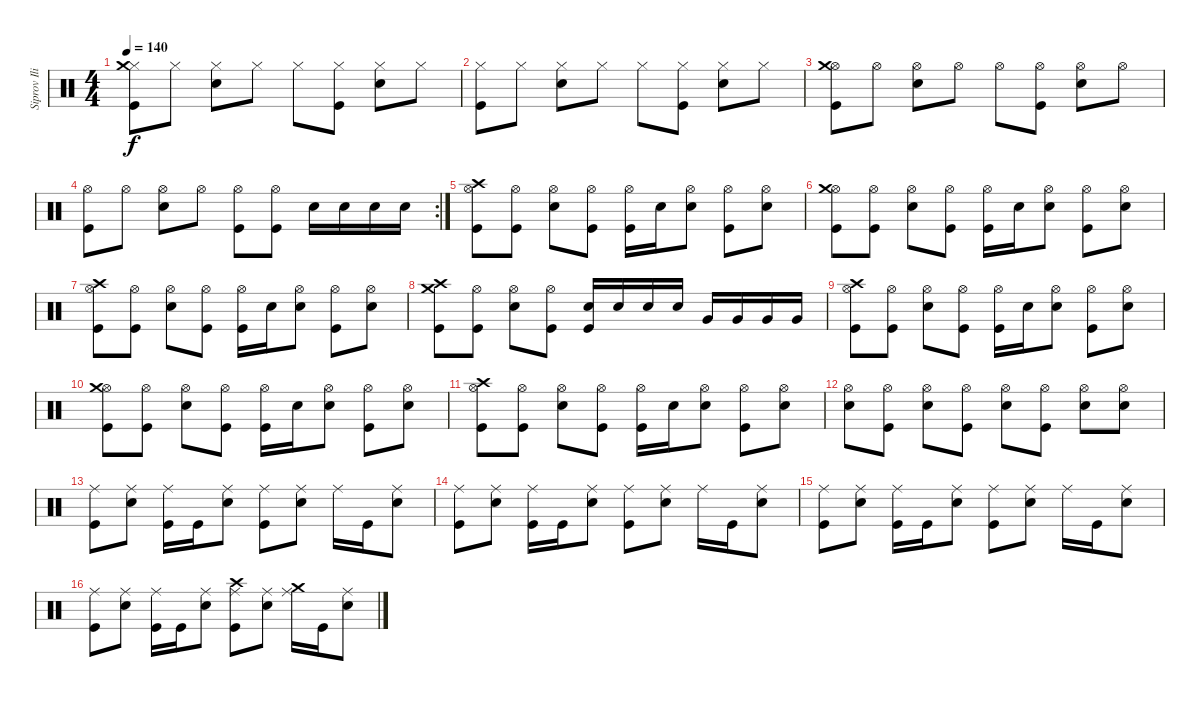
\track ("Siprov Iliya (DRUMS)" "Siprov Ili") {instrument percussion}
\staff {score}
\articulation defaults
\ts (4 4)
\tempo 140
\clef neutral
\ks c
("Hi-Hat (closed)" "Crash medium (hit)" "Kick (hit)").8{dy f} "Hi-Hat (closed)".8 ("Hi-Hat (closed)" "Electric Snare (hit)").8 "Hi-Hat (closed)".8 "Hi-Hat (closed)".8 ("Hi-Hat (closed)" "Kick (hit)").8 ("Hi-Hat (closed)" "Electric Snare (hit)").8 "Hi-Hat (closed)".8 |
("Hi-Hat (closed)" "Kick (hit)").8 "Hi-Hat (closed)".8 ("Hi-Hat (closed)" "Electric Snare (hit)").8 "Hi-Hat (closed)".8 "Hi-Hat (closed)".8 ("Hi-Hat (closed)" "Kick (hit)").8 ("Hi-Hat (closed)" "Electric Snare (hit)").8 "Hi-Hat (closed)".8 |
("Hi-Hat (open)" "Crash medium (hit)" "Kick (hit)").8 "Hi-Hat (open)".8 ("Hi-Hat (open)" "Electric Snare (hit)").8 "Hi-Hat (open)".8 "Hi-Hat (open)".8 ("Hi-Hat (open)" "Kick (hit)").8 ("Hi-Hat (open)" "Electric Snare (hit)").8 "Hi-Hat (open)".8 |
\rc 2
("Hi-Hat (open)" "Kick (hit)").8 "Hi-Hat (open)".8 ("Hi-Hat (open)" "Electric Snare (hit)").8 "Hi-Hat (open)".8 ("Hi-Hat (open)" "Kick (hit)").8 ("Hi-Hat (open)" "Kick (hit)").8 "Electric Snare (hit)".16 "Electric Snare (hit)".16 "Electric Snare (hit)".16 "Electric Snare (hit)".16 |
("Hi-Hat (open)" "Crash high (hit)" "Kick (hit)").8 ("Hi-Hat (open)" "Kick (hit)").8 ("Hi-Hat (open)" "Electric Snare (hit)").8 ("Hi-Hat (open)" "Kick (hit)").8 ("Hi-Hat (open)" "Kick (hit)").16 "Electric Snare (hit)".16 ("Hi-Hat (open)" "Electric Snare (hit)").8 ("Hi-Hat (open)" "Kick (hit)").8 ("Hi-Hat (open)" "Electric Snare (hit)").8 |
("Hi-Hat (open)" "Crash medium (hit)" "Kick (hit)").8 ("Hi-Hat (open)" "Kick (hit)").8 ("Hi-Hat (open)" "Electric Snare (hit)").8 ("Hi-Hat (open)" "Kick (hit)").8 ("Hi-Hat (open)" "Kick (hit)").16 "Electric Snare (hit)".16 ("Hi-Hat (open)" "Electric Snare (hit)").8 ("Hi-Hat (open)" "Kick (hit)").8 ("Hi-Hat (open)" "Electric Snare (hit)").8 |
("Hi-Hat (open)" "Crash high (hit)" "Kick (hit)").8 ("Hi-Hat (open)" "Kick (hit)").8 ("Hi-Hat (open)" "Electric Snare (hit)").8 ("Hi-Hat (open)" "Kick (hit)").8 ("Hi-Hat (open)" "Kick (hit)").16 "Electric Snare (hit)".16 ("Hi-Hat (open)" "Electric Snare (hit)").8 ("Hi-Hat (open)" "Kick (hit)").8 ("Hi-Hat (open)" "Electric Snare (hit)").8 |
("Crash high (hit)" "Crash medium (hit)" "Kick (hit)").8 ("Hi-Hat (open)" "Kick (hit)").8 ("Hi-Hat (open)" "Electric Snare (hit)").8 ("Hi-Hat (open)" "Kick (hit)").8 ("Electric Snare (hit)" "Kick (hit)").16 "Electric Snare (hit)".16 "Electric Snare (hit)".16 "Electric Snare (hit)".16 "Very Low Tom (hit)".16 "Very Low Tom (hit)".16 "Very Low Tom (hit)".16 "Very Low Tom (hit)".16 |
("Hi-Hat (open)" "Crash high (hit)" "Kick (hit)").8 ("Hi-Hat (open)" "Kick (hit)").8 ("Hi-Hat (open)" "Electric Snare (hit)").8 ("Hi-Hat (open)" "Kick (hit)").8 ("Hi-Hat (open)" "Kick (hit)").16 "Electric Snare (hit)".16 ("Hi-Hat (open)" "Electric Snare (hit)").8 ("Hi-Hat (open)" "Kick (hit)").8 ("Hi-Hat (open)" "Electric Snare (hit)").8 |
("Hi-Hat (open)" "Crash medium (hit)" "Kick (hit)").8 ("Hi-Hat (open)" "Kick (hit)").8 ("Hi-Hat (open)" "Electric Snare (hit)").8 ("Hi-Hat (open)" "Kick (hit)").8 ("Hi-Hat (open)" "Kick (hit)").16 "Electric Snare (hit)".16 ("Hi-Hat (open)" "Electric Snare (hit)").8 ("Hi-Hat (open)" "Kick (hit)").8 ("Hi-Hat (open)" "Electric Snare (hit)").8 |
("Hi-Hat (open)" "Crash high (hit)" "Kick (hit)").8 ("Hi-Hat (open)" "Kick (hit)").8 ("Hi-Hat (open)" "Electric Snare (hit)").8 ("Hi-Hat (open)" "Kick (hit)").8 ("Hi-Hat (open)" "Kick (hit)").16 "Electric Snare (hit)".16 ("Hi-Hat (open)" "Electric Snare (hit)").8 ("Hi-Hat (open)" "Kick (hit)").8 ("Hi-Hat (open)" "Electric Snare (hit)").8 |
("Hi-Hat (open)" "Electric Snare (hit)").8 ("Hi-Hat (open)" "Kick (hit)").8 ("Hi-Hat (open)" "Electric Snare (hit)").8 ("Hi-Hat (open)" "Kick (hit)").8 ("Hi-Hat (open)" "Electric Snare (hit)").8 ("Hi-Hat (open)" "Kick (hit)").8 ("Hi-Hat (open)" "Electric Snare (hit)").8 ("Hi-Hat (open)" "Electric Snare (hit)").8 |
("Ride (middle)" "Kick (hit)").8 ("Ride (middle)" "Electric Snare (hit)").8 ("Ride (middle)" "Kick (hit)").16 "Kick (hit)".16 ("Ride (middle)" "Electric Snare (hit)").8 ("Ride (middle)" "Kick (hit)").8 ("Ride (middle)" "Electric Snare (hit)").8 "Ride (middle)".16 "Kick (hit)".16 ("Ride (middle)" "Electric Snare (hit)").8 |
("Ride (middle)" "Kick (hit)").8 ("Ride (middle)" "Electric Snare (hit)").8 ("Ride (middle)" "Kick (hit)").16 "Kick (hit)".16 ("Ride (middle)" "Electric Snare (hit)").8 ("Ride (middle)" "Kick (hit)").8 ("Ride (middle)" "Electric Snare (hit)").8 "Ride (middle)".16 "Kick (hit)".16 ("Ride (middle)" "Electric Snare (hit)").8 |
("Ride (middle)" "Kick (hit)").8 ("Ride (middle)" "Electric Snare (hit)").8 ("Ride (middle)" "Kick (hit)").16 "Kick (hit)".16 ("Ride (middle)" "Electric Snare (hit)").8 ("Ride (middle)" "Kick (hit)").8 ("Ride (middle)" "Electric Snare (hit)").8 "Ride (middle)".16 "Kick (hit)".16 ("Ride (middle)" "Electric Snare (hit)").8 |
("Ride (middle)" "Kick (hit)").8 ("Ride (middle)" "Electric Snare (hit)").8 ("Ride (middle)" "Kick (hit)").16 "Kick (hit)".16 ("Ride (middle)" "Electric Snare (hit)").8 ("Ride (middle)" "Crash high (hit)" "Kick (hit)").8 ("Ride (middle)" "Electric Snare (hit)").8 ("Ride (middle)" "Crash medium (hit)").16 "Kick (hit)".16 ("Ride (middle)" "Electric Snare (hit)").8
